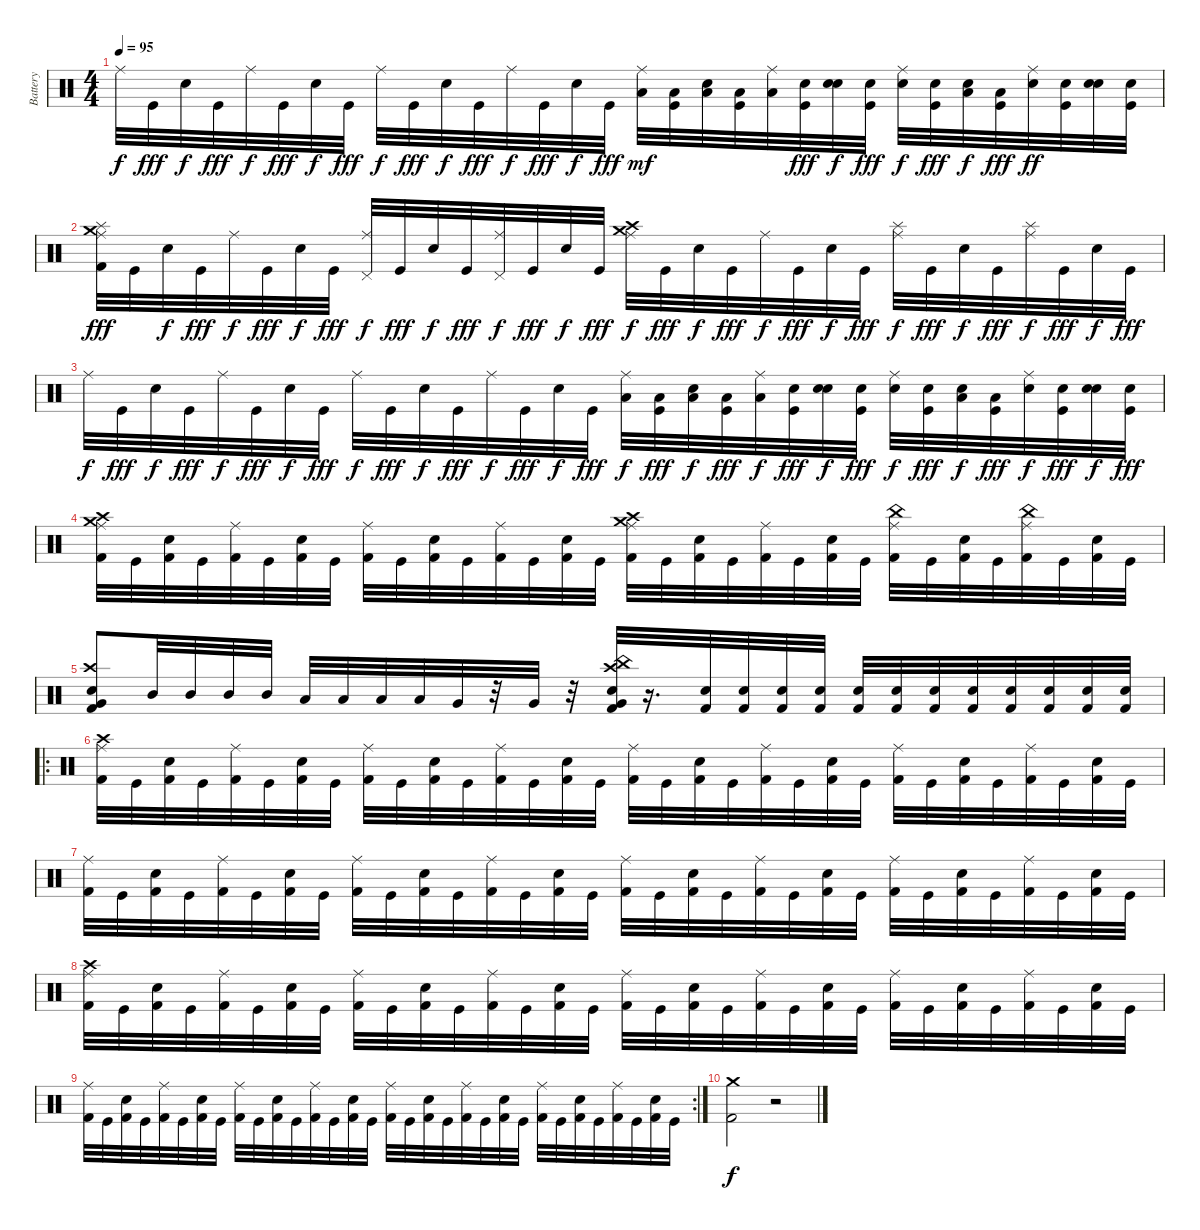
\track ("Battery" "Battery") {instrument percussion}
\staff {score}
\articulation defaults
\ts (4 4)
\tempo 95
\clef neutral
\ks c "Ride (middle)".32{dy f} "Kick (hit)".32{dy fff} "Electric Snare (hit)".32{dy f} "Kick (hit)".32{dy fff} "Ride (middle)".32{dy f} "Kick (hit)".32{dy fff} "Electric Snare (hit)".32{dy f} "Kick (hit)".32{dy fff} "Ride (middle)".32{dy f} "Kick (hit)".32{dy fff} "Electric Snare (hit)".32{dy f} "Kick (hit)".32{dy fff} "Ride (middle)".32{dy f} "Kick (hit)".32{dy fff} "Electric Snare (hit)".32{dy f} "Kick (hit)".32{dy fff}
("Ride (middle)" "Low Tom (hit)").32{dy mf} ("Kick (hit)" "Low Tom (hit)").32 ("Electric Snare (hit)" "Low Tom (hit)").32 ("Kick (hit)" "Low Tom (hit)").32 ("Ride (middle)" "Low Tom (hit)").32 ("Kick (hit)" "Electric Snare (hit)").32{dy fff} ("Electric Snare (hit)" "Electric Snare (hit)").32{dy f} ("Kick (hit)" "Electric Snare (hit)").32{dy fff} ("Ride (middle)" "Electric Snare (hit)").32{dy f} ("Kick (hit)" "Electric Snare (hit)").32{dy fff} ("Electric Snare (hit)" "Low Tom (hit)").32{dy f} ("Kick (hit)" "Low Tom (hit)").32{dy fff} ("Ride (middle)" "Electric Snare (hit)").32{dy ff} ("Kick (hit)" "Electric Snare (hit)").32 ("Electric Snare (hit)" "Electric Snare (hit)").32 ("Kick (hit)" "Electric Snare (hit)").32 |
("Ride (middle)" "Kick (hit) 2" "Splash (hit)" "Crash medium (hit)").32{dy fff} "Kick (hit)".32 "Electric Snare (hit)".32{dy f} "Kick (hit)".32{dy fff} "Ride (middle)".32{dy f} "Kick (hit)".32{dy fff} "Electric Snare (hit)".32{dy f} "Kick (hit)".32{dy fff} ("Ride (middle)" "Pedal Hi-Hat (hit)").32{dy f} "Kick (hit)".32{dy fff} "Electric Snare (hit)".32{dy f} "Kick (hit)".32{dy fff} ("Ride (middle)" "Pedal Hi-Hat (hit)").32{dy f} "Kick (hit)".32{dy fff} "Electric Snare (hit)".32{dy f} "Kick (hit)".32{dy fff} ("Ride (middle)" "Crash medium (hit)" "Crash high (hit)").32{dy f} "Kick (hit)".32{dy fff} "Electric Snare (hit)".32{dy f} "Kick (hit)".32{dy fff} "Ride (middle)".32{dy f} "Kick (hit)".32{dy fff} "Electric Snare (hit)".32{dy f} "Kick (hit)".32{dy fff} ("Ride (middle)" "Splash (hit)").32{dy f} "Kick (hit)".32{dy fff} "Electric Snare (hit)".32{dy f} "Kick (hit)".32{dy fff} ("Ride (middle)" "Splash (hit)").32{dy f} "Kick (hit)".32{dy fff} "Electric Snare (hit)".32{dy f} "Kick (hit)".32{dy fff} |
"Ride (middle)".32{dy f} "Kick (hit)".32{dy fff} "Electric Snare (hit)".32{dy f} "Kick (hit)".32{dy fff} "Ride (middle)".32{dy f} "Kick (hit)".32{dy fff} "Electric Snare (hit)".32{dy f} "Kick (hit)".32{dy fff} "Ride (middle)".32{dy f} "Kick (hit)".32{dy fff} "Electric Snare (hit)".32{dy f} "Kick (hit)".32{dy fff} "Ride (middle)".32{dy f} "Kick (hit)".32{dy fff} "Electric Snare (hit)".32{dy f} "Kick (hit)".32{dy fff} ("Ride (middle)" "Low Tom (hit)").32{dy f} ("Kick (hit)" "Low Tom (hit)").32{dy fff} ("Electric Snare (hit)" "Low Tom (hit)").32{dy f} ("Kick (hit)" "Low Tom (hit)").32{dy fff} ("Ride (middle)" "Low Tom (hit)").32{dy f} ("Kick (hit)" "Electric Snare (hit)").32{dy fff} ("Electric Snare (hit)" "Electric Snare (hit)").32{dy f} ("Kick (hit)" "Electric Snare (hit)").32{dy fff} ("Ride (middle)" "Electric Snare (hit)").32{dy f} ("Kick (hit)" "Electric Snare (hit)").32{dy fff} ("Electric Snare (hit)" "Low Tom (hit)").32{dy f} ("Kick (hit)" "Low Tom (hit)").32{dy fff} ("Ride (middle)" "Electric Snare (hit)").32{dy f} ("Kick (hit)" "Electric Snare (hit)").32{dy fff} ("Electric Snare (hit)" "Electric Snare (hit)").32{dy f} ("Kick (hit)" "Electric Snare (hit)").32{dy fff} |
("Ride (middle)" "Kick (hit) 2" "Crash high (hit)" "Crash medium (hit)").32 "Kick (hit)".32 ("Kick (hit) 2" "Electric Snare (hit)").32 "Kick (hit)".32 ("Ride (middle)" "Kick (hit) 2").32 "Kick (hit)".32 ("Electric Snare (hit)" "Kick (hit) 2").32 "Kick (hit)".32 ("Ride (middle)" "Kick (hit) 2").32 "Kick (hit)".32 ("Kick (hit) 2" "Electric Snare (hit)").32 "Kick (hit)".32 ("Kick (hit) 2" "Ride (middle)").32 "Kick (hit)".32 ("Kick (hit) 2" "Electric Snare (hit)").32 "Kick (hit)".32 ("Kick (hit) 2" "Ride (middle)" "Crash medium (hit)" "Crash high (hit)").32 "Kick (hit)".32 ("Electric Snare (hit)" "Kick (hit) 2").32 "Kick (hit)".32 ("Kick (hit) 2" "Ride (middle)").32 "Kick (hit)".32 ("Kick (hit) 2" "Electric Snare (hit)").32 "Kick (hit)".32 ("Ride (middle)" "Kick (hit) 2" "China (hit)").32 "Kick (hit)".32 ("Electric Snare (hit)" "Kick (hit) 2").32 "Kick (hit)".32 ("Kick (hit) 2" "Ride (middle)" "China (hit)").32 "Kick (hit)".32 ("Electric Snare (hit)" "Kick (hit) 2").32 "Kick (hit)".32 |
("Very Low Tom (hit)" "Electric Snare (hit)" "Crash high (hit)" "Kick (hit) 2").8 "Mid Tom (hit)".32 "Mid Tom (hit)".32 "Mid Tom (hit)".32 "Mid Tom (hit)".32 "Low Tom (hit)".32 "Low Tom (hit)".32 "Low Tom (hit)".32 "Low Tom (hit)".32 "Very Low Tom (hit)".32 r.32 "Very Low Tom (hit)".32 r.32 ("Electric Snare (hit)" "Crash high (hit)" "Very Low Tom (hit)" "China (hit)" "Kick (hit) 2").32 r.16{d} ("Electric Snare (hit)" "Kick (hit) 2").32 ("Electric Snare (hit)" "Kick (hit) 2").32 ("Electric Snare (hit)" "Kick (hit) 2").32 ("Electric Snare (hit)" "Kick (hit) 2").32 ("Electric Snare (hit)" "Kick (hit) 2").32 ("Electric Snare (hit)" "Kick (hit) 2").32 ("Electric Snare (hit)" "Kick (hit) 2").32 ("Electric Snare (hit)" "Kick (hit) 2").32 ("Electric Snare (hit)" "Kick (hit) 2").32 ("Electric Snare (hit)" "Kick (hit) 2").32 ("Electric Snare (hit)" "Kick (hit) 2").32 ("Electric Snare (hit)" "Kick (hit) 2").32 |
\ro
("Ride (middle)" "Kick (hit) 2" "Crash high (hit)").32 "Kick (hit)".32 ("Kick (hit) 2" "Electric Snare (hit)").32 "Kick (hit)".32 ("Ride (middle)" "Kick (hit) 2").32 "Kick (hit)".32 ("Electric Snare (hit)" "Kick (hit) 2").32 "Kick (hit)".32 ("Ride (middle)" "Kick (hit) 2").32 "Kick (hit)".32 ("Kick (hit) 2" "Electric Snare (hit)").32 "Kick (hit)".32 ("Kick (hit) 2" "Ride (middle)").32 "Kick (hit)".32 ("Kick (hit) 2" "Electric Snare (hit)").32 "Kick (hit)".32 ("Kick (hit) 2" "Ride (middle)").32 "Kick (hit)".32 ("Electric Snare (hit)" "Kick (hit) 2").32 "Kick (hit)".32 ("Kick (hit) 2" "Ride (middle)").32 "Kick (hit)".32 ("Kick (hit) 2" "Electric Snare (hit)").32 "Kick (hit)".32 ("Ride (middle)" "Kick (hit) 2").32 "Kick (hit)".32 ("Electric Snare (hit)" "Kick (hit) 2").32 "Kick (hit)".32 ("Kick (hit) 2" "Ride (middle)").32 "Kick (hit)".32 ("Electric Snare (hit)" "Kick (hit) 2").32 "Kick (hit)".32 |
("Kick (hit) 2" "Ride (middle)").32 "Kick (hit)".32 ("Kick (hit) 2" "Electric Snare (hit)").32 "Kick (hit)".32 ("Ride (middle)" "Kick (hit) 2").32 "Kick (hit)".32 ("Kick (hit) 2" "Electric Snare (hit)").32 "Kick (hit)".32 ("Ride (middle)" "Kick (hit) 2").32 "Kick (hit)".32 ("Electric Snare (hit)" "Kick (hit) 2").32 "Kick (hit)".32 ("Ride (middle)" "Kick (hit) 2").32 "Kick (hit)".32 ("Electric Snare (hit)" "Kick (hit) 2").32 "Kick (hit)".32 ("Ride (middle)" "Kick (hit) 2").32 "Kick (hit)".32 ("Kick (hit) 2" "Electric Snare (hit)").32 "Kick (hit)".32 ("Ride (middle)" "Kick (hit) 2").32 "Kick (hit)".32 ("Kick (hit) 2" "Electric Snare (hit)").32 "Kick (hit)".32 ("Kick (hit) 2" "Ride (middle)").32 "Kick (hit)".32 ("Electric Snare (hit)" "Kick (hit) 2").32 "Kick (hit)".32 ("Ride (middle)" "Kick (hit) 2").32 "Kick (hit)".32 ("Kick (hit) 2" "Electric Snare (hit)").32 "Kick (hit)".32 |
("Ride (middle)" "Kick (hit) 2" "Crash high (hit)").32 "Kick (hit)".32 ("Electric Snare (hit)" "Kick (hit) 2").32 "Kick (hit)".32 ("Kick (hit) 2" "Ride (middle)").32 "Kick (hit)".32 ("Kick (hit) 2" "Electric Snare (hit)").32 "Kick (hit)".32 ("Kick (hit) 2" "Ride (middle)").32 "Kick (hit)".32 ("Electric Snare (hit)" "Kick (hit) 2").32 "Kick (hit)".32 ("Ride (middle)" "Kick (hit) 2").32 "Kick (hit)".32 ("Electric Snare (hit)" "Kick (hit) 2").32 "Kick (hit)".32 ("Kick (hit) 2" "Ride (middle)").32 "Kick (hit)".32 ("Kick (hit) 2" "Electric Snare (hit)").32 "Kick (hit)".32 ("Kick (hit) 2" "Ride (middle)").32 "Kick (hit)".32 ("Electric Snare (hit)" "Kick (hit) 2").32 "Kick (hit)".32 ("Kick (hit) 2" "Ride (middle)").32 "Kick (hit)".32 ("Kick (hit) 2" "Electric Snare (hit)").32 "Kick (hit)".32 ("Ride (middle)" "Kick (hit) 2").32 "Kick (hit)".32 ("Kick (hit) 2" "Electric Snare (hit)").32 "Kick (hit)".32 |
\rc 2
("Kick (hit) 2" "Ride (middle)").32 "Kick (hit)".32 ("Electric Snare (hit)" "Kick (hit) 2").32 "Kick (hit)".32 ("Ride (middle)" "Kick (hit) 2").32 "Kick (hit)".32 ("Kick (hit) 2" "Electric Snare (hit)").32 "Kick (hit)".32 ("Ride (middle)" "Kick (hit) 2").32 "Kick (hit)".32 ("Electric Snare (hit)" "Kick (hit) 2").32 "Kick (hit)".32 ("Kick (hit) 2" "Ride (middle)").32 "Kick (hit)".32 ("Electric Snare (hit)" "Kick (hit) 2").32 "Kick (hit)".32 ("Ride (middle)" "Kick (hit) 2").32 "Kick (hit)".32 ("Electric Snare (hit)" "Kick (hit) 2").32 "Kick (hit)".32 ("Kick (hit) 2" "Ride (middle)").32 "Kick (hit)".32 ("Electric Snare (hit)" "Kick (hit) 2").32 "Kick (hit)".32 ("Ride (middle)" "Kick (hit) 2").32 "Kick (hit)".32 ("Electric Snare (hit)" "Kick (hit) 2").32 "Kick (hit)".32 ("Kick (hit) 2" "Ride (middle)").32 "Kick (hit)".32 ("Kick (hit) 2" "Electric Snare (hit)").32 "Kick (hit)".32 |
("Crash medium (hit)" "Kick (hit) 2").2{dy f} r.2
